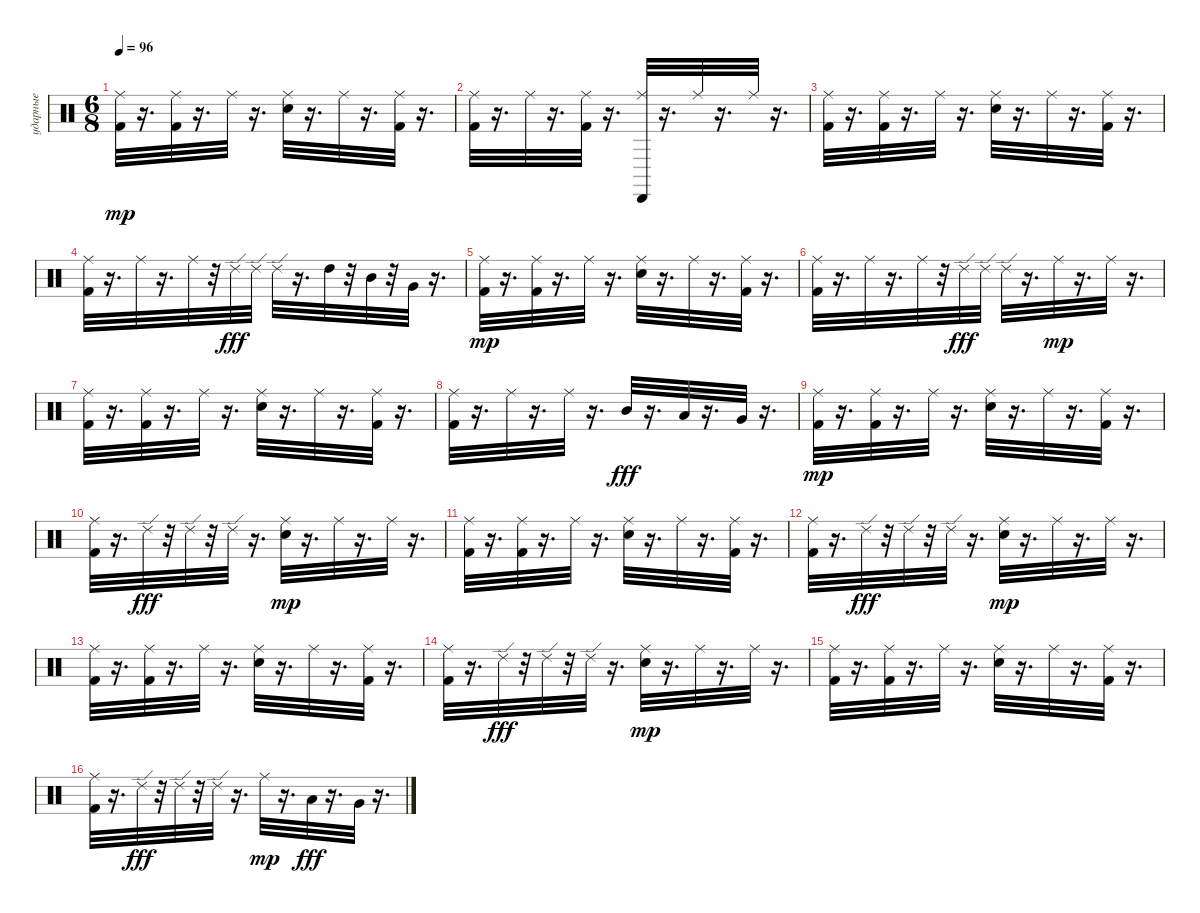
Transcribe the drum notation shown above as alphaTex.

\track ("ударные" "ударные") {instrument percussion}
\staff {score}
\articulation defaults
\ts (6 8)
\tempo 96
\clef neutral
\ks c
("Kick (hit) 2" "Ride (middle)").32{dy mp} r.16{d} ("Kick (hit) 2" "Ride (middle)").32 r.16{d} "Ride (middle)".32 r.16{d} ("Snare (hit) 2" "Ride (middle)").32 r.16{d} "Ride (middle)".32 r.16{d} ("Kick (hit) 2" "Ride (middle)").32 r.16{d} |
("Kick (hit) 2" "Ride (middle)").32 r.16{d} "Ride (middle)".32 r.16{d} ("Kick (hit) 2" "Ride (middle)").32 r.16{d} ("Cabasa (hit)" "Ride (middle)").32 r.16{d} "Ride (middle)".32 r.16{d} "Ride (middle)".32 r.16{d} |
("Kick (hit) 2" "Ride (middle)").32 r.16{d} ("Kick (hit) 2" "Ride (middle)").32 r.16{d} "Ride (middle)".32 r.16{d} ("Snare (hit) 2" "Ride (middle)").32 r.16{d} "Ride (middle)".32 r.16{d} ("Kick (hit) 2" "Ride (middle)").32 r.16{d} |
("Kick (hit) 2" "Ride (middle)").32 r.16{d} "Ride (middle)".32 r.16{d} "Ride (middle)".32 r.32 "Ride (edge) 2".32{dy fff} "Ride (edge) 2".32 "Ride (edge) 2".32 r.16{d} "High Tom (hit)".32 r.32 "Mid Tom (hit)".32 r.32 "Very Low Tom (hit)".32 r.16{d} |
("Kick (hit) 2" "Ride (middle)").32{dy mp} r.16{d} ("Kick (hit) 2" "Ride (middle)").32 r.16{d} "Ride (middle)".32 r.16{d} ("Snare (hit) 2" "Ride (middle)").32 r.16{d} "Ride (middle)".32 r.16{d} ("Kick (hit) 2" "Ride (middle)").32 r.16{d} |
("Kick (hit) 2" "Ride (middle)").32 r.16{d} "Ride (middle)".32 r.16{d} "Ride (middle)".32 r.32 "Ride (edge) 2".32{dy fff} "Ride (edge) 2".32 "Ride (edge) 2".32 r.16{d} "Ride (middle)".32{dy mp} r.16{d} "Ride (middle)".32 r.16{d} |
("Kick (hit) 2" "Ride (middle)").32 r.16{d} ("Kick (hit) 2" "Ride (middle)").32 r.16{d} "Ride (middle)".32 r.16{d} ("Snare (hit) 2" "Ride (middle)").32 r.16{d} "Ride (middle)".32 r.16{d} ("Kick (hit) 2" "Ride (middle)").32 r.16{d} |
("Kick (hit) 2" "Ride (middle)").32 r.16{d} "Ride (middle)".32 r.16{d} "Ride (middle)".32 r.16{d} "Mid Tom (hit)".32{dy fff} r.16{d} "Low Tom (hit)".32 r.16{d} "Very Low Tom (hit)".32 r.16{d} |
("Ride (middle)" "Kick (hit) 2").32{dy mp} r.16{d} ("Kick (hit) 2" "Ride (middle)").32 r.16{d} "Ride (middle)".32 r.16{d} ("Snare (hit) 2" "Ride (middle)").32 r.16{d} "Ride (middle)".32 r.16{d} ("Kick (hit) 2" "Ride (middle)").32 r.16{d} |
("Kick (hit) 2" "Ride (middle)").32 r.16{d} "Ride (edge) 2".32{dy fff} r.32 "Ride (edge) 2".32 r.32 "Ride (edge) 2".32 r.16{d} ("Snare (hit) 2" "Ride (middle)").32{dy mp} r.16{d} "Ride (middle)".32 r.16{d} "Ride (middle)".32 r.16{d} |
("Kick (hit) 2" "Ride (middle)").32 r.16{d} ("Kick (hit) 2" "Ride (middle)").32 r.16{d} "Ride (middle)".32 r.16{d} ("Snare (hit) 2" "Ride (middle)").32 r.16{d} "Ride (middle)".32 r.16{d} ("Kick (hit) 2" "Ride (middle)").32 r.16{d} |
("Kick (hit) 2" "Ride (middle)").32 r.16{d} "Ride (edge) 2".32{dy fff} r.32 "Ride (edge) 2".32 r.32 "Ride (edge) 2".32 r.16{d} ("Snare (hit) 2" "Ride (middle)").32{dy mp} r.16{d} "Ride (middle)".32 r.16{d} "Ride (middle)".32 r.16{d} |
("Kick (hit) 2" "Ride (middle)").32 r.16{d} ("Kick (hit) 2" "Ride (middle)").32 r.16{d} "Ride (middle)".32 r.16{d} ("Snare (hit) 2" "Ride (middle)").32 r.16{d} "Ride (middle)".32 r.16{d} ("Kick (hit) 2" "Ride (middle)").32 r.16{d} |
("Kick (hit) 2" "Ride (middle)").32 r.16{d} "Ride (edge) 2".32{dy fff} r.32 "Ride (edge) 2".32 r.32 "Ride (edge) 2".32 r.16{d} ("Snare (hit) 2" "Ride (middle)").32{dy mp} r.16{d} "Ride (middle)".32 r.16{d} "Ride (middle)".32 r.16{d} |
("Kick (hit) 2" "Ride (middle)").32 r.16{d} ("Kick (hit) 2" "Ride (middle)").32 r.16{d} "Ride (middle)".32 r.16{d} ("Snare (hit) 2" "Ride (middle)").32 r.16{d} "Ride (middle)".32 r.16{d} ("Kick (hit) 2" "Ride (middle)").32 r.16{d} |
("Kick (hit) 2" "Ride (middle)").32 r.16{d} "Ride (edge) 2".32{dy fff} r.32 "Ride (edge) 2".32 r.32 "Ride (edge) 2".32 r.16{d} "Ride (middle)".32{dy mp} r.16{d} "Low Tom (hit)".32{dy fff} r.16{d} "Very Low Tom (hit)".32 r.16{d}
